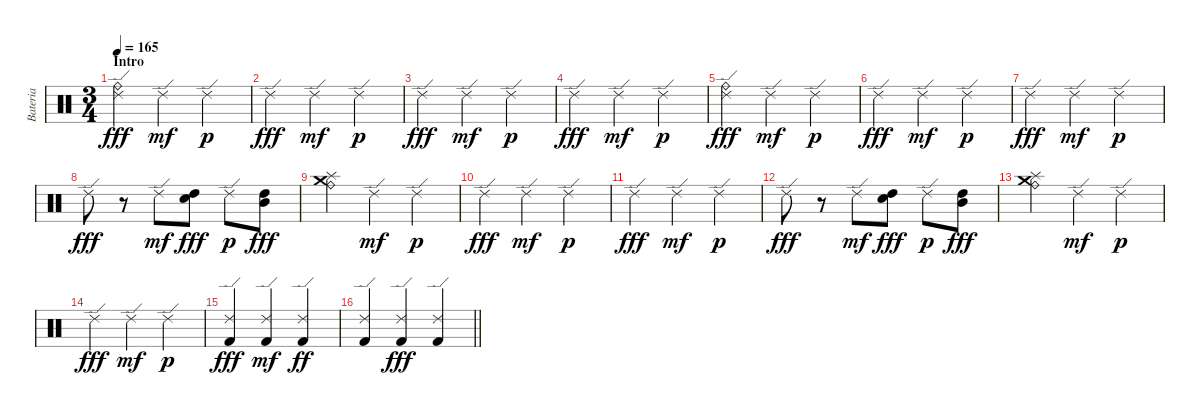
\track ("Bateria" "Bateria") {instrument percussion}
\staff {score}
\articulation defaults
\ts (3 4)
\section ("" "Intro")
\tempo 165
\clef neutral
\ks c
("Ride (edge) 2" "Ride (bell)").4{dy fff} "Ride (edge) 2".4{dy mf} "Ride (edge) 2".4{dy p} |
"Ride (edge) 2".4{dy fff} "Ride (edge) 2".4{dy mf} "Ride (edge) 2".4{dy p} |
"Ride (edge) 2".4{dy fff} "Ride (edge) 2".4{dy mf} "Ride (edge) 2".4{dy p} |
"Ride (edge) 2".4{dy fff} "Ride (edge) 2".4{dy mf} "Ride (edge) 2".4{dy p} |
("Ride (edge) 2" "Ride (bell)").4{dy fff} "Ride (edge) 2".4{dy mf} "Ride (edge) 2".4{dy p} |
"Ride (edge) 2".4{dy fff} "Ride (edge) 2".4{dy mf} "Ride (edge) 2".4{dy p} |
"Ride (edge) 2".4{dy fff} "Ride (edge) 2".4{dy mf} "Ride (edge) 2".4{dy p} |
"Ride (edge) 2".8{dy fff} r.8 "Ride (edge) 2".8{dy mf} ("High Tom (hit)" "Snare (hit) 2").8{dy fff} "Ride (edge) 2".8{dy p} ("Mid Tom (hit)" "High Tom (hit)").8{dy fff} |
("Splash (hit)" "Ride (bell)" "Crash medium (hit)").4 "Ride (edge) 2".4{dy mf} "Ride (edge) 2".4{dy p} |
"Ride (edge) 2".4{dy fff} "Ride (edge) 2".4{dy mf} "Ride (edge) 2".4{dy p} |
"Ride (edge) 2".4{dy fff} "Ride (edge) 2".4{dy mf} "Ride (edge) 2".4{dy p} |
"Ride (edge) 2".8{dy fff} r.8 "Ride (edge) 2".8{dy mf} ("High Tom (hit)" "Snare (hit) 2").8{dy fff} "Ride (edge) 2".8{dy p} ("Mid Tom (hit)" "High Tom (hit)").8{dy fff} |
("Splash (hit)" "Ride (bell)" "Crash medium (hit)").4 "Ride (edge) 2".4{dy mf} "Ride (edge) 2".4{dy p} |
"Ride (edge) 2".4{dy fff} "Ride (edge) 2".4{dy mf} "Ride (edge) 2".4{dy p} |
("Ride (edge) 2" "Kick (hit) 2").4{dy fff} ("Ride (edge) 2" "Kick (hit) 2").4{dy mf} ("Ride (edge) 2" "Kick (hit) 2").4{dy ff} |
\barLineRight lightlight
("Ride (edge) 2" "Kick (hit) 2").4 ("Ride (edge) 2" "Kick (hit) 2").4{dy fff} ("Ride (edge) 2" "Kick (hit) 2").4
